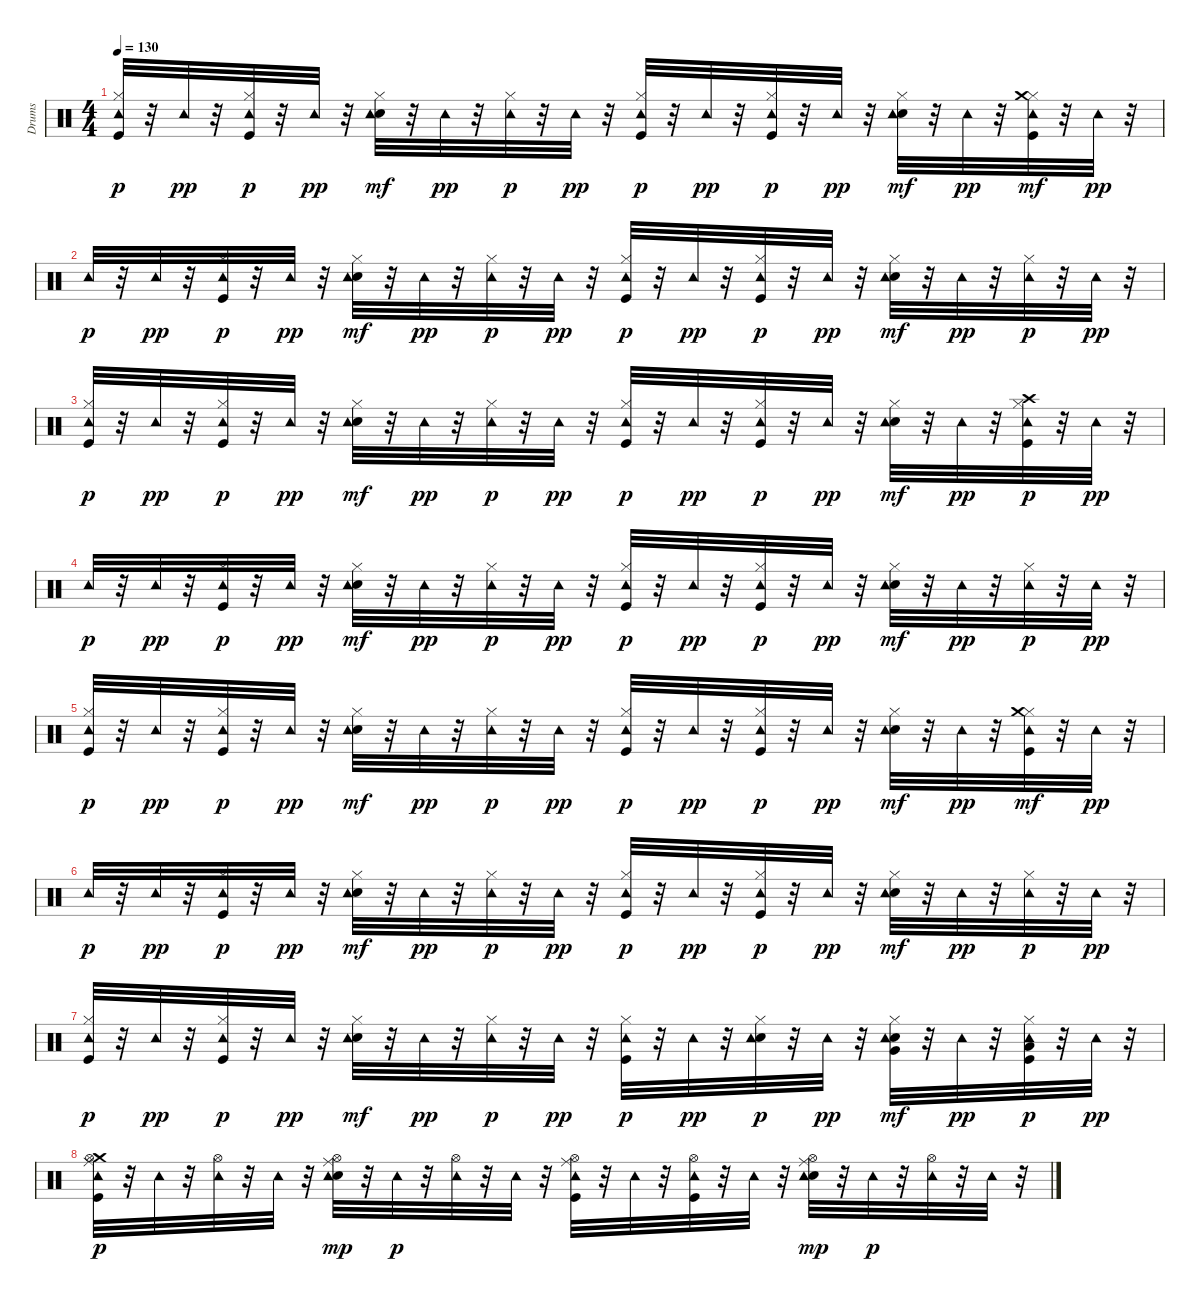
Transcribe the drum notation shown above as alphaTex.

\track ("Drums" "Drums") {instrument percussion}
\staff {score}
\articulation defaults
\ts (4 4)
\tempo 130
\clef neutral
\ks c
("Kick (hit)" "Hi-Hat (closed)" "Tambourine (hit)").32{dy p} r.32 "Tambourine (hit)".32{dy pp} r.32 ("Kick (hit)" "Hi-Hat (closed)" "Tambourine (hit)").32{dy p} r.32 "Tambourine (hit)".32{dy pp} r.32 ("Electric Snare (hit)" "Hi-Hat (closed)" "Tambourine (hit)").32{dy mf} r.32 "Tambourine (hit)".32{dy pp} r.32 ("Hi-Hat (closed)" "Tambourine (hit)").32{dy p} r.32 "Tambourine (hit)".32{dy pp} r.32 ("Kick (hit)" "Hi-Hat (closed)" "Tambourine (hit)").32{dy p} r.32 "Tambourine (hit)".32{dy pp} r.32 ("Kick (hit)" "Hi-Hat (closed)" "Tambourine (hit)").32{dy p} r.32 "Tambourine (hit)".32{dy pp} r.32 ("Electric Snare (hit)" "Hi-Hat (closed)" "Tambourine (hit)").32{dy mf} r.32 "Tambourine (hit)".32{dy pp} r.32 ("Kick (hit)" "Hi-Hat (closed)" "Tambourine (hit)" "Crash medium (hit)").32{dy mf} r.32 "Tambourine (hit)".32{dy pp} r.32 |
"Tambourine (hit)".32{dy p} r.32 "Tambourine (hit)".32{dy pp} r.32 ("Kick (hit)" "Hi-Hat (closed)" "Tambourine (hit)").32{dy p} r.32 "Tambourine (hit)".32{dy pp} r.32 ("Electric Snare (hit)" "Hi-Hat (closed)" "Tambourine (hit)").32{dy mf} r.32 "Tambourine (hit)".32{dy pp} r.32 ("Hi-Hat (closed)" "Tambourine (hit)").32{dy p} r.32 "Tambourine (hit)".32{dy pp} r.32 ("Kick (hit)" "Hi-Hat (closed)" "Tambourine (hit)").32{dy p} r.32 "Tambourine (hit)".32{dy pp} r.32 ("Kick (hit)" "Hi-Hat (closed)" "Tambourine (hit)").32{dy p} r.32 "Tambourine (hit)".32{dy pp} r.32 ("Electric Snare (hit)" "Hi-Hat (closed)" "Tambourine (hit)").32{dy mf} r.32 "Tambourine (hit)".32{dy pp} r.32 ("Hi-Hat (closed)" "Tambourine (hit)").32{dy p} r.32 "Tambourine (hit)".32{dy pp} r.32 |
("Kick (hit)" "Hi-Hat (closed)" "Tambourine (hit)").32{dy p} r.32 "Tambourine (hit)".32{dy pp} r.32 ("Kick (hit)" "Hi-Hat (closed)" "Tambourine (hit)").32{dy p} r.32 "Tambourine (hit)".32{dy pp} r.32 ("Electric Snare (hit)" "Hi-Hat (closed)" "Tambourine (hit)").32{dy mf} r.32 "Tambourine (hit)".32{dy pp} r.32 ("Hi-Hat (closed)" "Tambourine (hit)").32{dy p} r.32 "Tambourine (hit)".32{dy pp} r.32 ("Kick (hit)" "Hi-Hat (closed)" "Tambourine (hit)").32{dy p} r.32 "Tambourine (hit)".32{dy pp} r.32 ("Kick (hit)" "Hi-Hat (closed)" "Tambourine (hit)").32{dy p} r.32 "Tambourine (hit)".32{dy pp} r.32 ("Electric Snare (hit)" "Hi-Hat (closed)" "Tambourine (hit)").32{dy mf} r.32 "Tambourine (hit)".32{dy pp} r.32 ("Kick (hit)" "Hi-Hat (closed)" "Crash high (hit)" "Tambourine (hit)").32{dy p} r.32 "Tambourine (hit)".32{dy pp} r.32 |
"Tambourine (hit)".32{dy p} r.32 "Tambourine (hit)".32{dy pp} r.32 ("Kick (hit)" "Hi-Hat (closed)" "Tambourine (hit)").32{dy p} r.32 "Tambourine (hit)".32{dy pp} r.32 ("Electric Snare (hit)" "Hi-Hat (closed)" "Tambourine (hit)").32{dy mf} r.32 "Tambourine (hit)".32{dy pp} r.32 ("Hi-Hat (closed)" "Tambourine (hit)").32{dy p} r.32 "Tambourine (hit)".32{dy pp} r.32 ("Kick (hit)" "Hi-Hat (closed)" "Tambourine (hit)").32{dy p} r.32 "Tambourine (hit)".32{dy pp} r.32 ("Kick (hit)" "Hi-Hat (closed)" "Tambourine (hit)").32{dy p} r.32 "Tambourine (hit)".32{dy pp} r.32 ("Electric Snare (hit)" "Hi-Hat (closed)" "Tambourine (hit)").32{dy mf} r.32 "Tambourine (hit)".32{dy pp} r.32 ("Hi-Hat (closed)" "Tambourine (hit)").32{dy p} r.32 "Tambourine (hit)".32{dy pp} r.32 |
("Kick (hit)" "Hi-Hat (closed)" "Tambourine (hit)").32{dy p} r.32 "Tambourine (hit)".32{dy pp} r.32 ("Kick (hit)" "Hi-Hat (closed)" "Tambourine (hit)").32{dy p} r.32 "Tambourine (hit)".32{dy pp} r.32 ("Electric Snare (hit)" "Hi-Hat (closed)" "Tambourine (hit)").32{dy mf} r.32 "Tambourine (hit)".32{dy pp} r.32 ("Hi-Hat (closed)" "Tambourine (hit)").32{dy p} r.32 "Tambourine (hit)".32{dy pp} r.32 ("Kick (hit)" "Hi-Hat (closed)" "Tambourine (hit)").32{dy p} r.32 "Tambourine (hit)".32{dy pp} r.32 ("Kick (hit)" "Hi-Hat (closed)" "Tambourine (hit)").32{dy p} r.32 "Tambourine (hit)".32{dy pp} r.32 ("Electric Snare (hit)" "Hi-Hat (closed)" "Tambourine (hit)").32{dy mf} r.32 "Tambourine (hit)".32{dy pp} r.32 ("Kick (hit)" "Hi-Hat (closed)" "Tambourine (hit)" "Crash medium (hit)").32{dy mf} r.32 "Tambourine (hit)".32{dy pp} r.32 |
"Tambourine (hit)".32{dy p} r.32 "Tambourine (hit)".32{dy pp} r.32 ("Kick (hit)" "Hi-Hat (closed)" "Tambourine (hit)").32{dy p} r.32 "Tambourine (hit)".32{dy pp} r.32 ("Electric Snare (hit)" "Hi-Hat (closed)" "Tambourine (hit)").32{dy mf} r.32 "Tambourine (hit)".32{dy pp} r.32 ("Hi-Hat (closed)" "Tambourine (hit)").32{dy p} r.32 "Tambourine (hit)".32{dy pp} r.32 ("Kick (hit)" "Hi-Hat (closed)" "Tambourine (hit)").32{dy p} r.32 "Tambourine (hit)".32{dy pp} r.32 ("Kick (hit)" "Hi-Hat (closed)" "Tambourine (hit)").32{dy p} r.32 "Tambourine (hit)".32{dy pp} r.32 ("Electric Snare (hit)" "Hi-Hat (closed)" "Tambourine (hit)").32{dy mf} r.32 "Tambourine (hit)".32{dy pp} r.32 ("Hi-Hat (closed)" "Tambourine (hit)").32{dy p} r.32 "Tambourine (hit)".32{dy pp} r.32 |
("Kick (hit)" "Hi-Hat (closed)" "Tambourine (hit)").32{dy p} r.32 "Tambourine (hit)".32{dy pp} r.32 ("Kick (hit)" "Hi-Hat (closed)" "Tambourine (hit)").32{dy p} r.32 "Tambourine (hit)".32{dy pp} r.32 ("Electric Snare (hit)" "Hi-Hat (closed)" "Tambourine (hit)").32{dy mf} r.32 "Tambourine (hit)".32{dy pp} r.32 ("Hi-Hat (closed)" "Tambourine (hit)").32{dy p} r.32 "Tambourine (hit)".32{dy pp} r.32 ("Kick (hit)" "Hi-Hat (closed)" "Tambourine (hit)").32{dy p} r.32 "Tambourine (hit)".32{dy pp} r.32 ("Electric Snare (hit)" "Hi-Hat (closed)" "Tambourine (hit)").32{dy p} r.32 "Tambourine (hit)".32{dy pp} r.32 ("Electric Snare (hit)" "Hi-Hat (closed)" "Very Low Tom (hit)" "Tambourine (hit)").32{dy mf} r.32 "Tambourine (hit)".32{dy pp} r.32 ("Kick (hit)" "Low Floor Tom (hit)" "Hi-Hat (closed)" "Tambourine (hit)").32{dy p} r.32 "Tambourine (hit)".32{dy pp} r.32 |
("Ride (middle)" "Crash medium (hit)" "Kick (hit)" "Hi-Hat (open)" "Tambourine (hit)").32{dy p} r.32 "Tambourine (hit)".32 r.32 ("Hi-Hat (open)" "Tambourine (hit)").32 r.32 "Tambourine (hit)".32 r.32 ("Ride (middle)" "Electric Snare (hit)" "Hi-Hat (open)" "Tambourine (hit)").32{dy mp} r.32 "Tambourine (hit)".32{dy p} r.32 ("Hi-Hat (open)" "Tambourine (hit)").32 r.32 "Tambourine (hit)".32 r.32 ("Ride (middle)" "Kick (hit)" "Hi-Hat (open)" "Tambourine (hit)").32 r.32 "Tambourine (hit)".32 r.32 ("Kick (hit)" "Hi-Hat (open)" "Tambourine (hit)").32 r.32 "Tambourine (hit)".32 r.32 ("Ride (middle)" "Electric Snare (hit)" "Hi-Hat (open)" "Tambourine (hit)").32{dy mp} r.32 "Tambourine (hit)".32{dy p} r.32 ("Hi-Hat (open)" "Tambourine (hit)").32 r.32 "Tambourine (hit)".32 r.32
